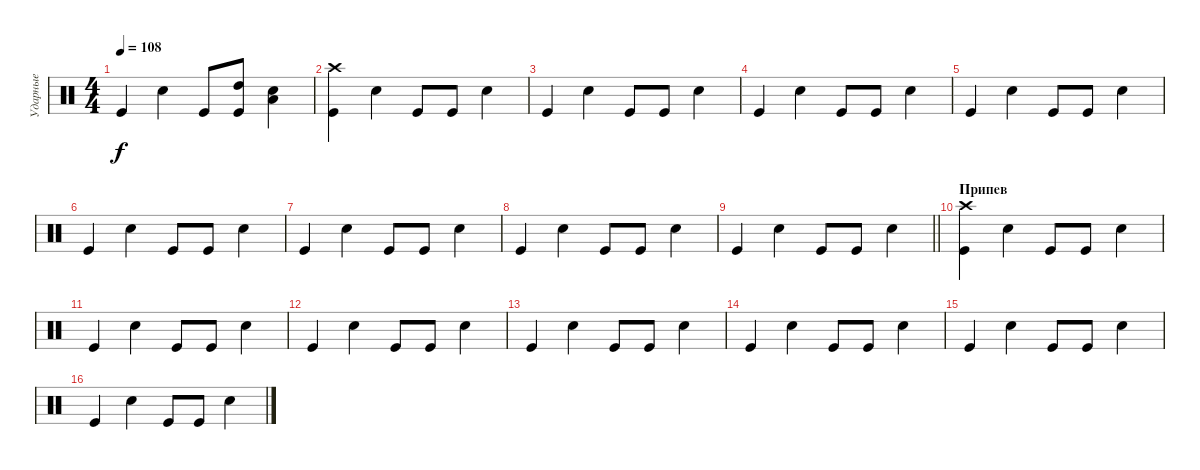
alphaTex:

\track ("Ударные" "Ударные") {instrument percussion}
\staff {score}
\articulation defaults
\ts (4 4)
\tempo 108
\clef neutral
\ks c "Kick (hit)".4{dy f} "Snare (hit) 2".4 "Kick (hit)".8
("Kick (hit)" "High Tom (hit)").8 ("Snare (hit) 2" "Low Tom (hit)").4 |
("Kick (hit)" "Crash high (hit)").4 "Snare (hit) 2".4 "Kick (hit)".8 "Kick (hit)".8 "Snare (hit) 2".4 |
"Kick (hit)".4 "Snare (hit) 2".4 "Kick (hit)".8 "Kick (hit)".8 "Snare (hit) 2".4 |
"Kick (hit)".4 "Snare (hit) 2".4 "Kick (hit)".8 "Kick (hit)".8 "Snare (hit) 2".4 |
"Kick (hit)".4 "Snare (hit) 2".4 "Kick (hit)".8 "Kick (hit)".8 "Snare (hit) 2".4 |
"Kick (hit)".4 "Snare (hit) 2".4 "Kick (hit)".8 "Kick (hit)".8 "Snare (hit) 2".4 |
"Kick (hit)".4 "Snare (hit) 2".4 "Kick (hit)".8 "Kick (hit)".8 "Snare (hit) 2".4 |
"Kick (hit)".4 "Snare (hit) 2".4 "Kick (hit)".8 "Kick (hit)".8 "Snare (hit) 2".4 |
\barLineRight lightlight "Kick (hit)".4 "Snare (hit) 2".4 "Kick (hit)".8 "Kick (hit)".8 "Snare (hit) 2".4
|
\section ("" "Припев")
("Kick (hit)" "Crash high (hit)").4 "Snare (hit) 2".4 "Kick (hit)".8 "Kick (hit)".8 "Snare (hit) 2".4 |
"Kick (hit)".4 "Snare (hit) 2".4 "Kick (hit)".8 "Kick (hit)".8 "Snare (hit) 2".4 |
"Kick (hit)".4 "Snare (hit) 2".4 "Kick (hit)".8 "Kick (hit)".8 "Snare (hit) 2".4 |
"Kick (hit)".4 "Snare (hit) 2".4 "Kick (hit)".8 "Kick (hit)".8 "Snare (hit) 2".4 |
"Kick (hit)".4 "Snare (hit) 2".4 "Kick (hit)".8 "Kick (hit)".8 "Snare (hit) 2".4 |
"Kick (hit)".4 "Snare (hit) 2".4 "Kick (hit)".8 "Kick (hit)".8 "Snare (hit) 2".4 |
"Kick (hit)".4 "Snare (hit) 2".4 "Kick (hit)".8 "Kick (hit)".8 "Snare (hit) 2".4
